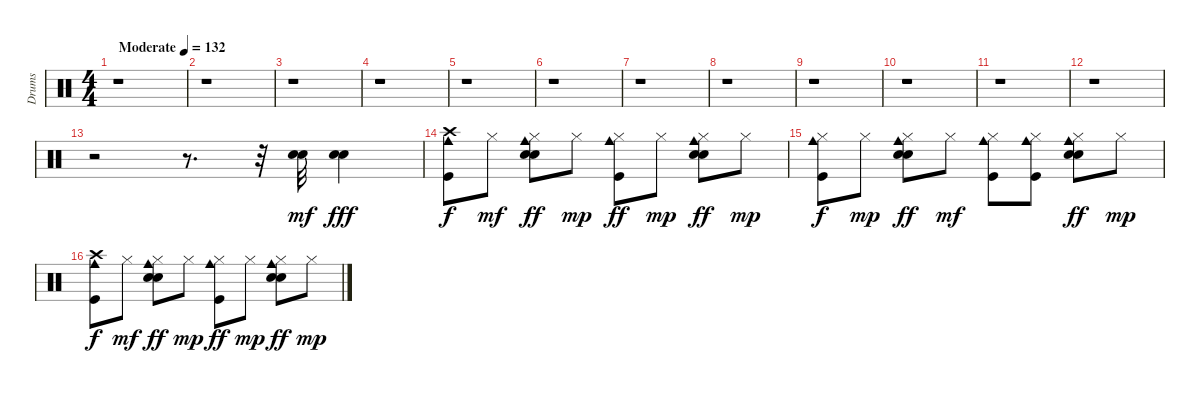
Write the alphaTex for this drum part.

\track ("Drums" "Drums") {instrument percussion}
\staff {score}
\articulation defaults
\ts (4 4)
\tempo (132 "Moderate")
\clef neutral
\ks c
r.1{dy mf} |
r.1 |
r.1 |
r.1 |
r.1 |
r.1 |
r.1 |
r.1 |
r.1 |
r.1 |
r.1 |
r.1 |
r.2 r.8{d} r.32 ("Electric Snare (hit)" "Snare (hit) 2").32 ("Electric Snare (hit)" "Snare (hit) 2").4{dy fff} |
("Kick (hit)" "Cowbell medium (hit)" "Crash high (hit)").8{dy f} "Hi-Hat (closed)".8{dy mf} ("Hi-Hat (closed)" "Electric Snare (hit)" "Snare (hit) 2" "Cowbell medium (hit)").8{dy ff} "Hi-Hat (closed)".8{dy mp} ("Hi-Hat (closed)" "Kick (hit)" "Cowbell medium (hit)").8{dy ff} "Hi-Hat (closed)".8{dy mp} ("Hi-Hat (closed)" "Electric Snare (hit)" "Snare (hit) 2" "Cowbell medium (hit)").8{dy ff} "Hi-Hat (closed)".8{dy mp} |
("Hi-Hat (closed)" "Kick (hit)" "Cowbell medium (hit)").8{dy f} "Hi-Hat (closed)".8{dy mp} ("Hi-Hat (closed)" "Electric Snare (hit)" "Snare (hit) 2" "Cowbell medium (hit)").8{dy ff} "Hi-Hat (closed)".8{dy mf} ("Hi-Hat (closed)" "Kick (hit)" "Cowbell medium (hit)").8 ("Hi-Hat (closed)" "Kick (hit)" "Cowbell medium (hit)").8 ("Hi-Hat (closed)" "Electric Snare (hit)" "Snare (hit) 2" "Cowbell medium (hit)").8{dy ff} "Hi-Hat (closed)".8{dy mp} |
("Kick (hit)" "Cowbell medium (hit)" "Crash high (hit)").8{dy f} "Hi-Hat (closed)".8{dy mf} ("Hi-Hat (closed)" "Electric Snare (hit)" "Snare (hit) 2" "Cowbell medium (hit)").8{dy ff} "Hi-Hat (closed)".8{dy mp} ("Hi-Hat (closed)" "Kick (hit)" "Cowbell medium (hit)").8{dy ff} "Hi-Hat (closed)".8{dy mp} ("Hi-Hat (closed)" "Electric Snare (hit)" "Snare (hit) 2" "Cowbell medium (hit)").8{dy ff} "Hi-Hat (closed)".8{dy mp}
